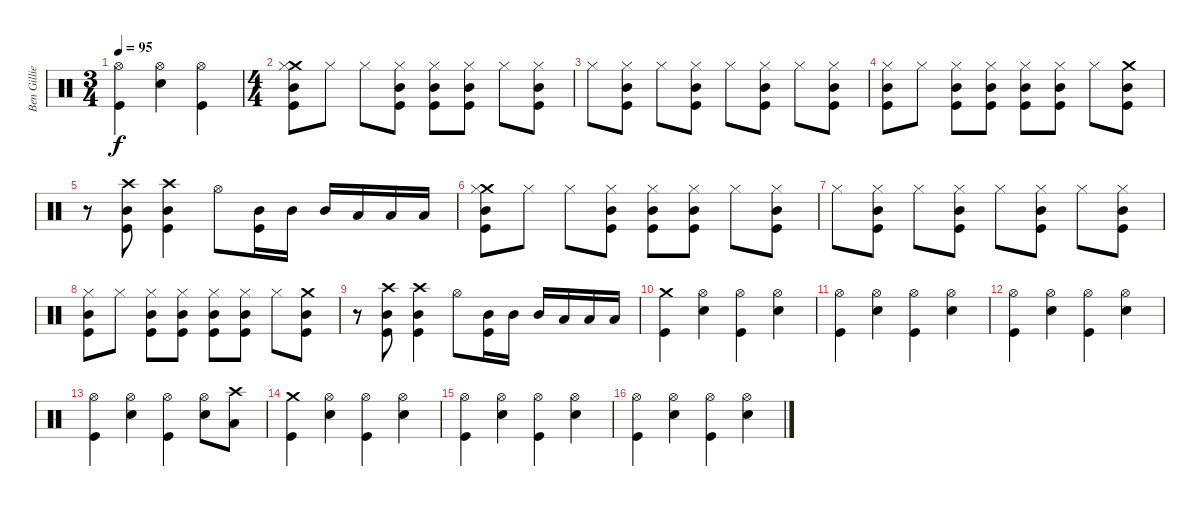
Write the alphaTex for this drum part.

\track ("Ben Gillies (drums)" "Ben Gillie") {instrument percussion}
\staff {score}
\articulation defaults
\ts (3 4)
\tempo 95
\clef neutral
\ks c
("Kick (hit)" "Hi-Hat (open)").4{dy f} ("Snare (hit) 2" "Hi-Hat (open)").4 ("Kick (hit)" "Hi-Hat (open)").4 |
\ts (4 4)
("Crash medium (hit)" "Mid Tom (hit)" "Kick (hit)" "Hi-Hat (closed)").8 "Hi-Hat (closed)".8 "Hi-Hat (closed)".8 ("Mid Tom (hit)" "Kick (hit)" "Hi-Hat (closed)").8 ("Mid Tom (hit)" "Kick (hit)" "Hi-Hat (closed)").8 ("Mid Tom (hit)" "Kick (hit)" "Hi-Hat (closed)").8 "Hi-Hat (closed)".8 ("Hi-Hat (closed)" "Mid Tom (hit)" "Kick (hit)").8 |
"Hi-Hat (closed)".8 ("Mid Tom (hit)" "Kick (hit)" "Hi-Hat (closed)").8 "Hi-Hat (closed)".8 ("Mid Tom (hit)" "Kick (hit)" "Hi-Hat (closed)").8 "Hi-Hat (closed)".8 ("Hi-Hat (closed)" "Mid Tom (hit)" "Kick (hit)").8 "Hi-Hat (closed)".8 ("Mid Tom (hit)" "Kick (hit)" "Hi-Hat (closed)").8 |
("Mid Tom (hit)" "Kick (hit)" "Hi-Hat (closed)").8 "Hi-Hat (closed)".8 ("Mid Tom (hit)" "Kick (hit)" "Hi-Hat (closed)").8 ("Mid Tom (hit)" "Kick (hit)" "Hi-Hat (closed)").8 ("Mid Tom (hit)" "Kick (hit)" "Hi-Hat (closed)").8 ("Mid Tom (hit)" "Kick (hit)" "Hi-Hat (closed)").8 "Hi-Hat (closed)".8 ("Crash medium (hit)" "Mid Tom (hit)" "Kick (hit)").8 |
r.8 ("Crash high (hit)" "Mid Tom (hit)" "Kick (hit)").8 ("Crash high (hit)" "Mid Tom (hit)" "Kick (hit)").4 "Hi-Hat (open)".8 ("Mid Tom (hit)" "Kick (hit)").16 "Mid Tom (hit)".16 "Mid Tom (hit)".16 "Low Tom (hit)".16 "Low Tom (hit)".16 "Low Tom (hit)".16 |
("Crash medium (hit)" "Mid Tom (hit)" "Kick (hit)" "Hi-Hat (closed)").8 "Hi-Hat (closed)".8 "Hi-Hat (closed)".8 ("Mid Tom (hit)" "Kick (hit)" "Hi-Hat (closed)").8 ("Mid Tom (hit)" "Kick (hit)" "Hi-Hat (closed)").8 ("Mid Tom (hit)" "Kick (hit)" "Hi-Hat (closed)").8 "Hi-Hat (closed)".8 ("Hi-Hat (closed)" "Mid Tom (hit)" "Kick (hit)").8 |
"Hi-Hat (closed)".8 ("Mid Tom (hit)" "Kick (hit)" "Hi-Hat (closed)").8 "Hi-Hat (closed)".8 ("Mid Tom (hit)" "Kick (hit)" "Hi-Hat (closed)").8 "Hi-Hat (closed)".8 ("Hi-Hat (closed)" "Mid Tom (hit)" "Kick (hit)").8 "Hi-Hat (closed)".8 ("Mid Tom (hit)" "Kick (hit)" "Hi-Hat (closed)").8 |
("Mid Tom (hit)" "Kick (hit)" "Hi-Hat (closed)").8 "Hi-Hat (closed)".8 ("Mid Tom (hit)" "Kick (hit)" "Hi-Hat (closed)").8 ("Mid Tom (hit)" "Kick (hit)" "Hi-Hat (closed)").8 ("Mid Tom (hit)" "Kick (hit)" "Hi-Hat (closed)").8 ("Mid Tom (hit)" "Kick (hit)" "Hi-Hat (closed)").8 "Hi-Hat (closed)".8 ("Crash medium (hit)" "Mid Tom (hit)" "Kick (hit)").8 |
r.8 ("Crash high (hit)" "Mid Tom (hit)" "Kick (hit)").8 ("Crash high (hit)" "Mid Tom (hit)" "Kick (hit)").4 "Hi-Hat (open)".8 ("Mid Tom (hit)" "Kick (hit)").16 "Mid Tom (hit)".16 "Mid Tom (hit)".16 "Low Tom (hit)".16 "Low Tom (hit)".16 "Low Tom (hit)".16 |
("Crash medium (hit)" "Kick (hit)").4 ("Snare (hit) 2" "Hi-Hat (open)").4 ("Kick (hit)" "Hi-Hat (open)").4 ("Snare (hit) 2" "Hi-Hat (open)").4 |
("Kick (hit)" "Hi-Hat (open)").4 ("Snare (hit) 2" "Hi-Hat (open)").4 ("Kick (hit)" "Hi-Hat (open)").4 ("Snare (hit) 2" "Hi-Hat (open)").4 |
("Kick (hit)" "Hi-Hat (open)").4 ("Snare (hit) 2" "Hi-Hat (open)").4 ("Kick (hit)" "Hi-Hat (open)").4 ("Snare (hit) 2" "Hi-Hat (open)").4 |
("Kick (hit)" "Hi-Hat (open)").4 ("Snare (hit) 2" "Hi-Hat (open)").4 ("Kick (hit)" "Hi-Hat (open)").4 ("Snare (hit) 2" "Hi-Hat (open)").8 ("Crash high (hit)" "Low Tom (hit)").8 |
("Crash medium (hit)" "Kick (hit)").4 ("Snare (hit) 2" "Hi-Hat (open)").4 ("Kick (hit)" "Hi-Hat (open)").4 ("Snare (hit) 2" "Hi-Hat (open)").4 |
("Kick (hit)" "Hi-Hat (open)").4 ("Snare (hit) 2" "Hi-Hat (open)").4 ("Kick (hit)" "Hi-Hat (open)").4 ("Snare (hit) 2" "Hi-Hat (open)").4 |
("Kick (hit)" "Hi-Hat (open)").4 ("Snare (hit) 2" "Hi-Hat (open)").4 ("Kick (hit)" "Hi-Hat (open)").4 ("Snare (hit) 2" "Hi-Hat (open)").4
